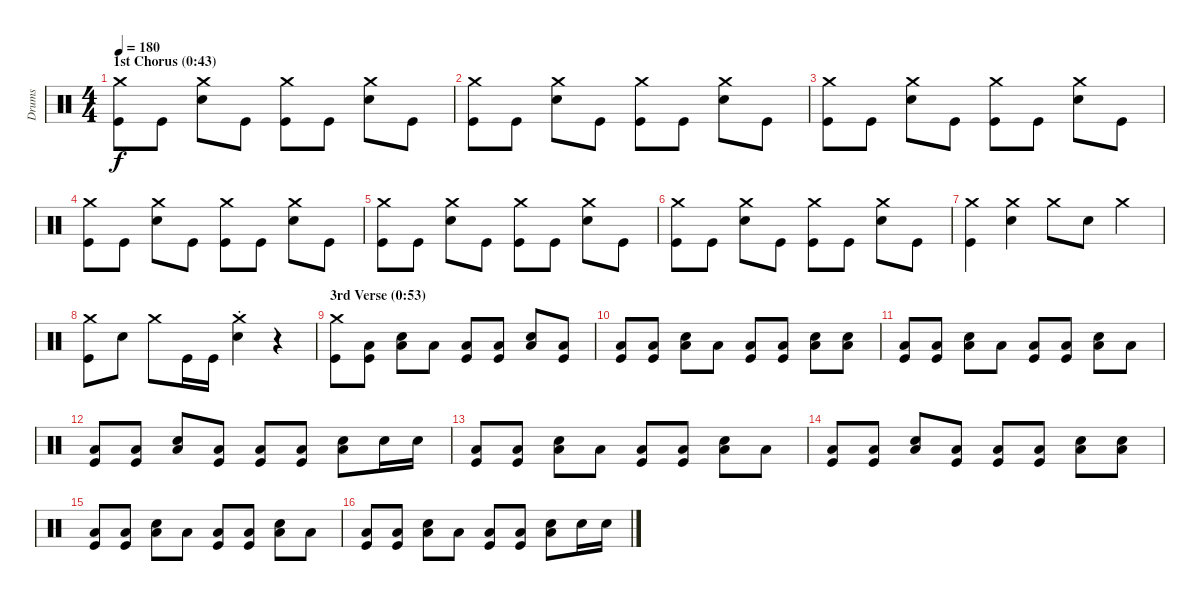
\track ("Drums" "Drums") {instrument percussion}
\staff {score}
\articulation defaults
\ts (4 4)
\section ("" "1st Chorus (0:43)")
\tempo 180
\clef neutral
\ks c
("Crash medium (hit)" "Kick (hit)").8{dy f} "Kick (hit)".8 ("Crash medium (hit)" "Snare (hit) 2").8 "Kick (hit)".8 ("Crash medium (hit)" "Kick (hit)").8 "Kick (hit)".8 ("Crash medium (hit)" "Snare (hit) 2").8 "Kick (hit)".8 |
("Crash medium (hit)" "Kick (hit)").8 "Kick (hit)".8 ("Crash medium (hit)" "Snare (hit) 2").8 "Kick (hit)".8 ("Crash medium (hit)" "Kick (hit)").8 "Kick (hit)".8 ("Crash medium (hit)" "Snare (hit) 2").8 "Kick (hit)".8 |
("Crash medium (hit)" "Kick (hit)").8 "Kick (hit)".8 ("Crash medium (hit)" "Snare (hit) 2").8 "Kick (hit)".8 ("Crash medium (hit)" "Kick (hit)").8 "Kick (hit)".8 ("Crash medium (hit)" "Snare (hit) 2").8 "Kick (hit)".8 |
("Crash medium (hit)" "Kick (hit)").8 "Kick (hit)".8 ("Crash medium (hit)" "Snare (hit) 2").8 "Kick (hit)".8 ("Crash medium (hit)" "Kick (hit)").8 "Kick (hit)".8 ("Crash medium (hit)" "Snare (hit) 2").8 "Kick (hit)".8 |
("Crash medium (hit)" "Kick (hit)").8 "Kick (hit)".8 ("Crash medium (hit)" "Snare (hit) 2").8 "Kick (hit)".8 ("Crash medium (hit)" "Kick (hit)").8 "Kick (hit)".8 ("Crash medium (hit)" "Snare (hit) 2").8 "Kick (hit)".8 |
("Crash medium (hit)" "Kick (hit)").8 "Kick (hit)".8 ("Crash medium (hit)" "Snare (hit) 2").8 "Kick (hit)".8 ("Crash medium (hit)" "Kick (hit)").8 "Kick (hit)".8 ("Crash medium (hit)" "Snare (hit) 2").8 "Kick (hit)".8 |
("Crash medium (hit)" "Kick (hit)").4 ("Crash medium (hit)" "Snare (hit) 2").4 "Crash medium (hit)".8 "Snare (hit) 2".8 "Crash medium (hit)".4 |
("Crash medium (hit)" "Kick (hit)").8 "Snare (hit) 2".8 "Crash medium (hit)".8 "Kick (hit)".16 "Kick (hit)".16 ("Crash medium (hit)"{st} "Snare (hit) 2").4 r.4 |
\section ("" "3rd Verse (0:53)")
("Crash medium (hit)" "Kick (hit)").8 ("Low Floor Tom (hit)" "Kick (hit)").8 ("Snare (hit) 2" "Low Floor Tom (hit)").8 "Low Floor Tom (hit)".8 ("Low Floor Tom (hit)" "Kick (hit)").8 ("Low Floor Tom (hit)" "Kick (hit)").8 ("Snare (hit) 2" "Low Floor Tom (hit)").8 ("Low Floor Tom (hit)" "Kick (hit)").8 |
("Low Floor Tom (hit)" "Kick (hit)").8 ("Low Floor Tom (hit)" "Kick (hit)").8 ("Snare (hit) 2" "Low Floor Tom (hit)").8 "Low Floor Tom (hit)".8 ("Low Floor Tom (hit)" "Kick (hit)").8 ("Low Floor Tom (hit)" "Kick (hit)").8 ("Snare (hit) 2" "Low Floor Tom (hit)").8 ("Snare (hit) 2" "Low Floor Tom (hit)").8 |
("Low Floor Tom (hit)" "Kick (hit)").8 ("Low Floor Tom (hit)" "Kick (hit)").8 ("Snare (hit) 2" "Low Floor Tom (hit)").8 "Low Floor Tom (hit)".8 ("Low Floor Tom (hit)" "Kick (hit)").8 ("Low Floor Tom (hit)" "Kick (hit)").8 ("Snare (hit) 2" "Low Floor Tom (hit)").8 "Low Floor Tom (hit)".8 |
("Low Floor Tom (hit)" "Kick (hit)").8 ("Low Floor Tom (hit)" "Kick (hit)").8 ("Snare (hit) 2" "Low Floor Tom (hit)").8 ("Low Floor Tom (hit)" "Kick (hit)").8 ("Low Floor Tom (hit)" "Kick (hit)").8 ("Low Floor Tom (hit)" "Kick (hit)").8 ("Snare (hit) 2" "Low Floor Tom (hit)").8 "Snare (hit) 2".16 "Snare (hit) 2".16 |
("Low Floor Tom (hit)" "Kick (hit)").8 ("Low Floor Tom (hit)" "Kick (hit)").8 ("Snare (hit) 2" "Low Floor Tom (hit)").8 "Low Floor Tom (hit)".8 ("Low Floor Tom (hit)" "Kick (hit)").8 ("Low Floor Tom (hit)" "Kick (hit)").8 ("Snare (hit) 2" "Low Floor Tom (hit)").8 "Low Floor Tom (hit)".8 |
("Low Floor Tom (hit)" "Kick (hit)").8 ("Low Floor Tom (hit)" "Kick (hit)").8 ("Snare (hit) 2" "Low Floor Tom (hit)").8 ("Low Floor Tom (hit)" "Kick (hit)").8 ("Low Floor Tom (hit)" "Kick (hit)").8 ("Low Floor Tom (hit)" "Kick (hit)").8 ("Snare (hit) 2" "Low Floor Tom (hit)").8 ("Snare (hit) 2" "Low Floor Tom (hit)").8 |
("Low Floor Tom (hit)" "Kick (hit)").8 ("Low Floor Tom (hit)" "Kick (hit)").8 ("Snare (hit) 2" "Low Floor Tom (hit)").8 "Low Floor Tom (hit)".8 ("Low Floor Tom (hit)" "Kick (hit)").8 ("Low Floor Tom (hit)" "Kick (hit)").8 ("Snare (hit) 2" "Low Floor Tom (hit)").8 "Low Floor Tom (hit)".8 |
("Low Floor Tom (hit)" "Kick (hit)").8 ("Low Floor Tom (hit)" "Kick (hit)").8 ("Snare (hit) 2" "Low Floor Tom (hit)").8 "Low Floor Tom (hit)".8 ("Low Floor Tom (hit)" "Kick (hit)").8 ("Low Floor Tom (hit)" "Kick (hit)").8 ("Snare (hit) 2" "Low Floor Tom (hit)").8 "Snare (hit) 2".16 "Snare (hit) 2".16
